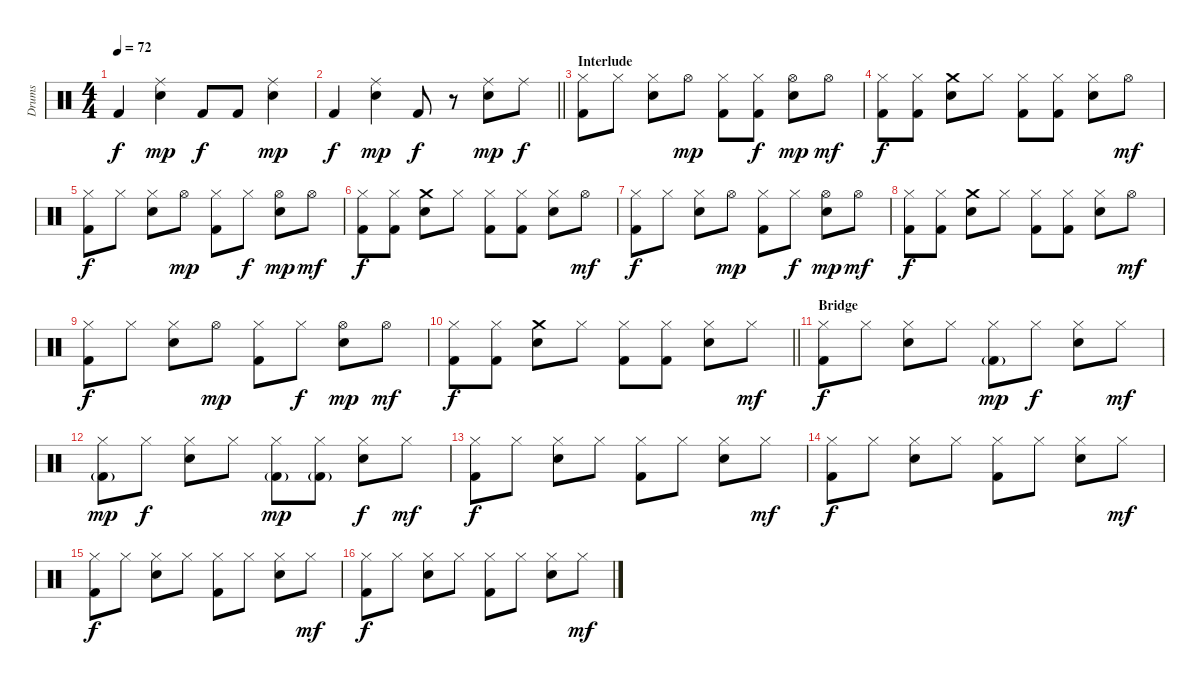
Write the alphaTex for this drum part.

\track ("Drums" "Drums") {instrument percussion}
\staff {score}
\articulation defaults
\ts (4 4)
\tempo 72
\clef neutral
\ks c "Kick (hit) 2".4{dy f}
("Ride (middle)" "Electric Snare (hit)").4{dy mp} "Kick (hit) 2".8{dy f} "Kick (hit) 2".8 ("Ride (middle)" "Electric Snare (hit)").4{dy mp} |
\barLineRight lightlight "Kick (hit) 2".4{dy f}
("Ride (middle)" "Electric Snare (hit)").4{dy mp} "Kick (hit) 2".8{dy f} r.8 ("Ride (middle)" "Electric Snare (hit)").8{dy mp} "Ride (middle)".8{dy f} |
\section ("" "Interlude")
("Hi-Hat (closed)" "Kick (hit) 2").8 "Hi-Hat (closed)".8 ("Hi-Hat (closed)" "Electric Snare (hit)").8 "Hi-Hat (open)".8{dy mp} ("Hi-Hat (closed)" "Kick (hit) 2").8 ("Hi-Hat (closed)" "Kick (hit) 2").8{dy f} ("Hi-Hat (open)" "Electric Snare (hit)").8{dy mp} "Hi-Hat (open)".8{dy mf} |
("Hi-Hat (closed)" "Kick (hit) 2").8{dy f} ("Hi-Hat (closed)" "Kick (hit) 2").8 ("Crash medium (hit)" "Electric Snare (hit)").8 "Hi-Hat (closed)".8 ("Hi-Hat (closed)" "Kick (hit) 2").8 ("Hi-Hat (closed)" "Kick (hit) 2").8 ("Hi-Hat (closed)" "Electric Snare (hit)").8 "Hi-Hat (open)".8{dy mf} |
("Hi-Hat (closed)" "Kick (hit) 2").8{dy f} "Hi-Hat (closed)".8 ("Hi-Hat (closed)" "Electric Snare (hit)").8 "Hi-Hat (open)".8{dy mp} ("Hi-Hat (closed)" "Kick (hit) 2").8 "Hi-Hat (closed)".8{dy f} ("Hi-Hat (open)" "Electric Snare (hit)").8{dy mp} "Hi-Hat (open)".8{dy mf} |
("Hi-Hat (closed)" "Kick (hit) 2").8{dy f} ("Hi-Hat (closed)" "Kick (hit) 2").8 ("Crash medium (hit)" "Electric Snare (hit)").8 "Hi-Hat (closed)".8 ("Hi-Hat (closed)" "Kick (hit) 2").8 ("Hi-Hat (closed)" "Kick (hit) 2").8 ("Hi-Hat (closed)" "Electric Snare (hit)").8 "Hi-Hat (open)".8{dy mf} |
("Hi-Hat (closed)" "Kick (hit) 2").8{dy f} "Hi-Hat (closed)".8 ("Hi-Hat (closed)" "Electric Snare (hit)").8 "Hi-Hat (open)".8{dy mp} ("Hi-Hat (closed)" "Kick (hit) 2").8 "Hi-Hat (closed)".8{dy f} ("Hi-Hat (open)" "Electric Snare (hit)").8{dy mp} "Hi-Hat (open)".8{dy mf} |
("Hi-Hat (closed)" "Kick (hit) 2").8{dy f} ("Hi-Hat (closed)" "Kick (hit) 2").8 ("Crash medium (hit)" "Electric Snare (hit)").8 "Hi-Hat (closed)".8 ("Hi-Hat (closed)" "Kick (hit) 2").8 ("Hi-Hat (closed)" "Kick (hit) 2").8 ("Hi-Hat (closed)" "Electric Snare (hit)").8 "Hi-Hat (open)".8{dy mf} |
("Hi-Hat (closed)" "Kick (hit) 2").8{dy f} "Hi-Hat (closed)".8 ("Hi-Hat (closed)" "Electric Snare (hit)").8 "Hi-Hat (open)".8{dy mp} ("Hi-Hat (closed)" "Kick (hit) 2").8 "Hi-Hat (closed)".8{dy f} ("Hi-Hat (open)" "Electric Snare (hit)").8{dy mp} "Hi-Hat (open)".8{dy mf} |
\barLineRight lightlight
("Hi-Hat (closed)" "Kick (hit) 2").8{dy f} ("Hi-Hat (closed)" "Kick (hit) 2").8 ("Crash medium (hit)" "Electric Snare (hit)").8 "Hi-Hat (closed)".8 ("Hi-Hat (closed)" "Kick (hit) 2").8 ("Hi-Hat (closed)" "Kick (hit) 2").8 ("Hi-Hat (closed)" "Electric Snare (hit)").8 "Hi-Hat (closed)".8{dy mf} |
\section ("" "Bridge")
("Hi-Hat (closed)" "Kick (hit) 2").8{dy f} "Hi-Hat (closed)".8 ("Hi-Hat (closed)" "Electric Snare (hit)").8 "Hi-Hat (closed)".8 ("Hi-Hat (closed)" "Kick (hit) 2"{g}).8{dy mp} "Hi-Hat (closed)".8{dy f} ("Hi-Hat (closed)" "Electric Snare (hit)").8 "Hi-Hat (closed)".8{dy mf} |
("Hi-Hat (closed)" "Kick (hit) 2"{g}).8{dy mp} "Hi-Hat (closed)".8{dy f} ("Hi-Hat (closed)" "Electric Snare (hit)").8 "Hi-Hat (closed)".8 ("Hi-Hat (closed)" "Kick (hit) 2"{g}).8{dy mp} ("Hi-Hat (closed)" "Kick (hit) 2"{g}).8 ("Hi-Hat (closed)" "Electric Snare (hit)").8{dy f} "Hi-Hat (closed)".8{dy mf} |
("Hi-Hat (closed)" "Kick (hit) 2").8{dy f} "Hi-Hat (closed)".8 ("Hi-Hat (closed)" "Electric Snare (hit)").8 "Hi-Hat (closed)".8 ("Hi-Hat (closed)" "Kick (hit) 2").8 "Hi-Hat (closed)".8 ("Hi-Hat (closed)" "Electric Snare (hit)").8 "Hi-Hat (closed)".8{dy mf} |
("Hi-Hat (closed)" "Kick (hit) 2").8{dy f} "Hi-Hat (closed)".8 ("Hi-Hat (closed)" "Electric Snare (hit)").8 "Hi-Hat (closed)".8 ("Hi-Hat (closed)" "Kick (hit) 2").8 "Hi-Hat (closed)".8 ("Hi-Hat (closed)" "Electric Snare (hit)").8 "Hi-Hat (closed)".8{dy mf} |
("Hi-Hat (closed)" "Kick (hit) 2").8{dy f} "Hi-Hat (closed)".8 ("Hi-Hat (closed)" "Electric Snare (hit)").8 "Hi-Hat (closed)".8 ("Hi-Hat (closed)" "Kick (hit) 2").8 "Hi-Hat (closed)".8 ("Hi-Hat (closed)" "Electric Snare (hit)").8 "Hi-Hat (closed)".8{dy mf} |
("Hi-Hat (closed)" "Kick (hit) 2").8{dy f} "Hi-Hat (closed)".8 ("Hi-Hat (closed)" "Electric Snare (hit)").8 "Hi-Hat (closed)".8 ("Hi-Hat (closed)" "Kick (hit) 2").8 "Hi-Hat (closed)".8 ("Hi-Hat (closed)" "Electric Snare (hit)").8 "Hi-Hat (closed)".8{dy mf}
